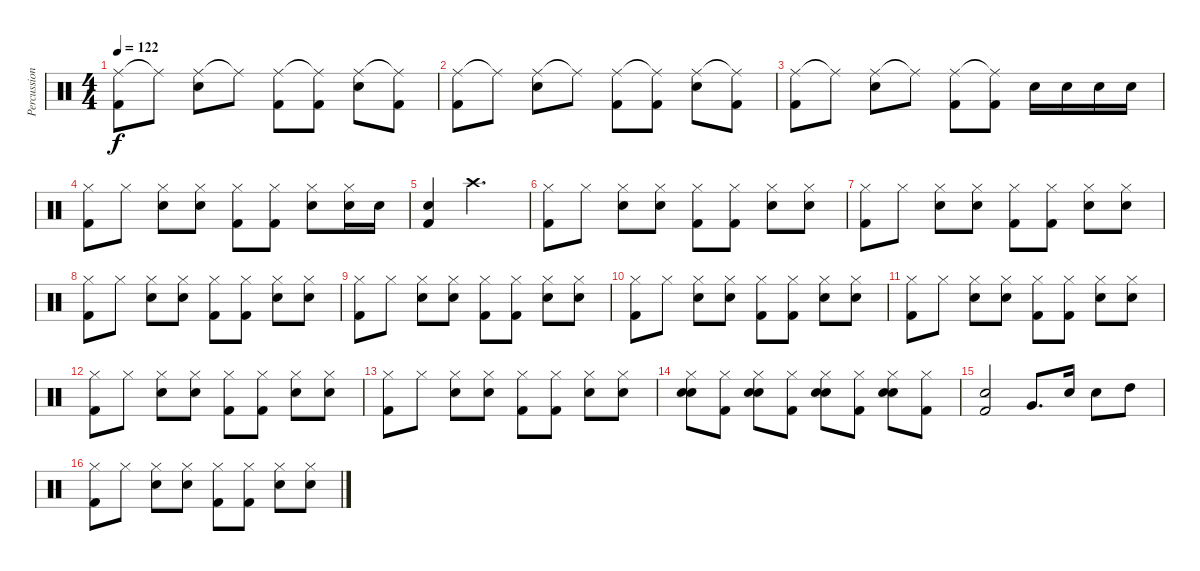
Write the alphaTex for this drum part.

\track ("Percussion" "Percussion") {instrument percussion}
\staff {score}
\articulation defaults
\ts (4 4)
\tempo 122
\clef neutral
\ks c
("Ride (middle)" "Kick (hit) 2").8{dy f} "Ride (middle)"{t}.8 ("Ride (middle)" "Snare (hit) 2").8 "Ride (middle)"{t}.8 ("Ride (middle)" "Kick (hit) 2").8 ("Ride (middle)"{t} "Kick (hit) 2").8 ("Ride (middle)" "Snare (hit) 2").8 ("Ride (middle)"{t} "Kick (hit) 2").8 |
("Ride (middle)" "Kick (hit) 2").8 "Ride (middle)"{t}.8 ("Ride (middle)" "Snare (hit) 2").8 "Ride (middle)"{t}.8 ("Ride (middle)" "Kick (hit) 2").8 ("Ride (middle)"{t} "Kick (hit) 2").8 ("Ride (middle)" "Snare (hit) 2").8 ("Ride (middle)"{t} "Kick (hit) 2").8 |
("Ride (middle)" "Kick (hit) 2").8 "Ride (middle)"{t}.8 ("Ride (middle)" "Snare (hit) 2").8 "Ride (middle)"{t}.8 ("Ride (middle)" "Kick (hit) 2").8 ("Ride (middle)"{t} "Kick (hit) 2").8 "Snare (hit) 2".16 "Snare (hit) 2".16 "Snare (hit) 2".16 "Snare (hit) 2".16 |
("Hi-Hat (closed)" "Kick (hit) 2").8 "Hi-Hat (closed)".8 ("Hi-Hat (closed)" "Snare (hit) 2").8 ("Hi-Hat (closed)" "Snare (hit) 2").8 ("Hi-Hat (closed)" "Kick (hit) 2").8 ("Hi-Hat (closed)" "Kick (hit) 2").8 ("Hi-Hat (closed)" "Snare (hit) 2").8 ("Hi-Hat (closed)" "Snare (hit) 2").16 "Snare (hit) 2".16 |
("Snare (hit) 2" "Kick (hit) 2").4 "Crash high (hit)".2{d} |
("Hi-Hat (closed)" "Kick (hit) 2").8 "Hi-Hat (closed)".8 ("Hi-Hat (closed)" "Snare (hit) 2").8 ("Hi-Hat (closed)" "Snare (hit) 2").8 ("Hi-Hat (closed)" "Kick (hit) 2").8 ("Hi-Hat (closed)" "Kick (hit) 2").8 ("Hi-Hat (closed)" "Snare (hit) 2").8 ("Hi-Hat (closed)" "Snare (hit) 2").8 |
("Hi-Hat (closed)" "Kick (hit) 2").8 "Hi-Hat (closed)".8 ("Hi-Hat (closed)" "Snare (hit) 2").8 ("Hi-Hat (closed)" "Snare (hit) 2").8 ("Hi-Hat (closed)" "Kick (hit) 2").8 ("Hi-Hat (closed)" "Kick (hit) 2").8 ("Hi-Hat (closed)" "Snare (hit) 2").8 ("Hi-Hat (closed)" "Snare (hit) 2").8 |
("Hi-Hat (closed)" "Kick (hit) 2").8 "Hi-Hat (closed)".8 ("Hi-Hat (closed)" "Snare (hit) 2").8 ("Hi-Hat (closed)" "Snare (hit) 2").8 ("Hi-Hat (closed)" "Kick (hit) 2").8 ("Hi-Hat (closed)" "Kick (hit) 2").8 ("Hi-Hat (closed)" "Snare (hit) 2").8 ("Hi-Hat (closed)" "Snare (hit) 2").8 |
("Hi-Hat (closed)" "Kick (hit) 2").8 "Hi-Hat (closed)".8 ("Hi-Hat (closed)" "Snare (hit) 2").8 ("Hi-Hat (closed)" "Snare (hit) 2").8 ("Hi-Hat (closed)" "Kick (hit) 2").8 ("Hi-Hat (closed)" "Kick (hit) 2").8 ("Hi-Hat (closed)" "Snare (hit) 2").8 ("Hi-Hat (closed)" "Snare (hit) 2").8 |
("Hi-Hat (closed)" "Kick (hit) 2").8 "Hi-Hat (closed)".8 ("Hi-Hat (closed)" "Snare (hit) 2").8 ("Hi-Hat (closed)" "Snare (hit) 2").8 ("Hi-Hat (closed)" "Kick (hit) 2").8 ("Hi-Hat (closed)" "Kick (hit) 2").8 ("Hi-Hat (closed)" "Snare (hit) 2").8 ("Hi-Hat (closed)" "Snare (hit) 2").8 |
("Hi-Hat (closed)" "Kick (hit) 2").8 "Hi-Hat (closed)".8 ("Hi-Hat (closed)" "Snare (hit) 2").8 ("Hi-Hat (closed)" "Snare (hit) 2").8 ("Hi-Hat (closed)" "Kick (hit) 2").8 ("Hi-Hat (closed)" "Kick (hit) 2").8 ("Hi-Hat (closed)" "Snare (hit) 2").8 ("Hi-Hat (closed)" "Snare (hit) 2").8 |
("Hi-Hat (closed)" "Kick (hit) 2").8 "Hi-Hat (closed)".8 ("Hi-Hat (closed)" "Snare (hit) 2").8 ("Hi-Hat (closed)" "Snare (hit) 2").8 ("Hi-Hat (closed)" "Kick (hit) 2").8 ("Hi-Hat (closed)" "Kick (hit) 2").8 ("Hi-Hat (closed)" "Snare (hit) 2").8 ("Hi-Hat (closed)" "Snare (hit) 2").8 |
("Hi-Hat (closed)" "Kick (hit) 2").8 "Hi-Hat (closed)".8 ("Hi-Hat (closed)" "Snare (hit) 2").8 ("Hi-Hat (closed)" "Snare (hit) 2").8 ("Hi-Hat (closed)" "Kick (hit) 2").8 ("Hi-Hat (closed)" "Kick (hit) 2").8 ("Hi-Hat (closed)" "Snare (hit) 2").8 ("Hi-Hat (closed)" "Snare (hit) 2").8 |
("Hi-Hat (closed)" "Snare (hit) 2" "Snare (hit) 2").8 ("Hi-Hat (closed)" "Kick (hit) 2").8 ("Hi-Hat (closed)" "Snare (hit) 2" "Snare (hit) 2").8 ("Hi-Hat (closed)" "Kick (hit) 2").8 ("Hi-Hat (closed)" "Snare (hit) 2" "Snare (hit) 2").8 ("Hi-Hat (closed)" "Kick (hit) 2").8 ("Hi-Hat (closed)" "Snare (hit) 2" "Snare (hit) 2").8 ("Hi-Hat (closed)" "Kick (hit) 2").8 |
("Snare (hit) 2" "Kick (hit) 2").2 "Very Low Tom (hit)".8{d} "Snare (hit) 2".16 "Snare (hit) 2".8 "High Tom (hit)".8 |
("Hi-Hat (closed)" "Kick (hit) 2").8 "Hi-Hat (closed)".8 ("Hi-Hat (closed)" "Snare (hit) 2").8 ("Hi-Hat (closed)" "Snare (hit) 2").8 ("Hi-Hat (closed)" "Kick (hit) 2").8 ("Hi-Hat (closed)" "Kick (hit) 2").8 ("Hi-Hat (closed)" "Snare (hit) 2").8 ("Hi-Hat (closed)" "Snare (hit) 2").8
